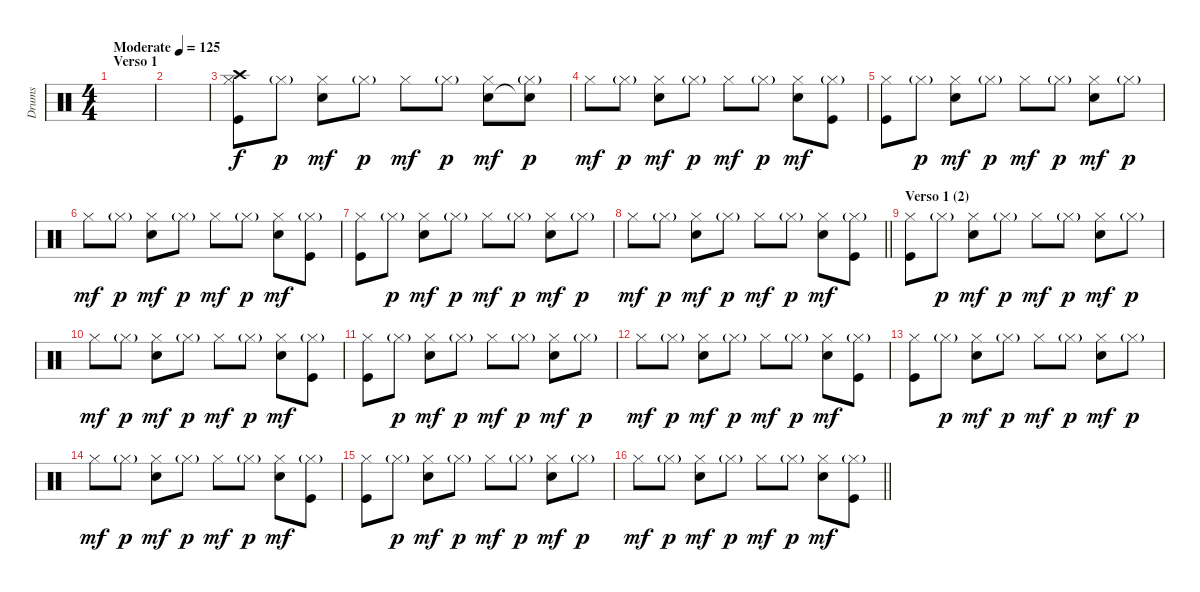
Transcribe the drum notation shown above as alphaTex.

\track ("Drums" "Drums") {instrument percussion}
\staff {score}
\articulation defaults
\ts (4 4)
\section ("" "Verso 1")
\tempo (125 "Moderate")
\clef neutral
\ks c
|
|
("Hi-Hat (closed)" "Kick (hit)" "Crash high (hit)").8 "Hi-Hat (closed)"{g}.8{dy p} ("Hi-Hat (closed)" "Electric Snare (hit)").8{dy mf} "Hi-Hat (closed)"{g}.8{dy p} "Hi-Hat (closed)".8{dy mf} "Hi-Hat (closed)"{g}.8{dy p} ("Hi-Hat (closed)" "Electric Snare (hit)").8{dy mf} ("Hi-Hat (closed)"{g} "Snare (hit)"{t}).8{dy p} |
"Hi-Hat (closed)".8{dy mf} "Hi-Hat (closed)"{g}.8{dy p} ("Hi-Hat (closed)" "Electric Snare (hit)").8{dy mf} "Hi-Hat (closed)"{g}.8{dy p} "Hi-Hat (closed)".8{dy mf} "Hi-Hat (closed)"{g}.8{dy p} ("Hi-Hat (closed)" "Electric Snare (hit)").8{dy mf} ("Hi-Hat (closed)"{g} "Kick (hit)").8 |
("Hi-Hat (closed)" "Kick (hit)").8 "Hi-Hat (closed)"{g}.8{dy p} ("Hi-Hat (closed)" "Electric Snare (hit)").8{dy mf} "Hi-Hat (closed)"{g}.8{dy p} "Hi-Hat (closed)".8{dy mf} "Hi-Hat (closed)"{g}.8{dy p} ("Hi-Hat (closed)" "Electric Snare (hit)").8{dy mf} "Hi-Hat (closed)"{g}.8{dy p} |
"Hi-Hat (closed)".8{dy mf} "Hi-Hat (closed)"{g}.8{dy p} ("Hi-Hat (closed)" "Electric Snare (hit)").8{dy mf} "Hi-Hat (closed)"{g}.8{dy p} "Hi-Hat (closed)".8{dy mf} "Hi-Hat (closed)"{g}.8{dy p} ("Hi-Hat (closed)" "Electric Snare (hit)").8{dy mf} ("Hi-Hat (closed)"{g} "Kick (hit)").8 |
("Hi-Hat (closed)" "Kick (hit)").8 "Hi-Hat (closed)"{g}.8{dy p} ("Hi-Hat (closed)" "Electric Snare (hit)").8{dy mf} "Hi-Hat (closed)"{g}.8{dy p} "Hi-Hat (closed)".8{dy mf} "Hi-Hat (closed)"{g}.8{dy p} ("Hi-Hat (closed)" "Electric Snare (hit)").8{dy mf} "Hi-Hat (closed)"{g}.8{dy p} |
\barLineRight lightlight "Hi-Hat (closed)".8{dy mf} "Hi-Hat (closed)"{g}.8{dy p}
("Hi-Hat (closed)" "Electric Snare (hit)").8{dy mf} "Hi-Hat (closed)"{g}.8{dy p} "Hi-Hat (closed)".8{dy mf} "Hi-Hat (closed)"{g}.8{dy p} ("Hi-Hat (closed)" "Electric Snare (hit)").8{dy mf} ("Hi-Hat (closed)"{g} "Kick (hit)").8 |
\section ("" "Verso 1 (2)")
("Hi-Hat (closed)" "Kick (hit)").8 "Hi-Hat (closed)"{g}.8{dy p} ("Hi-Hat (closed)" "Electric Snare (hit)").8{dy mf} "Hi-Hat (closed)"{g}.8{dy p} "Hi-Hat (closed)".8{dy mf} "Hi-Hat (closed)"{g}.8{dy p} ("Hi-Hat (closed)" "Electric Snare (hit)").8{dy mf} "Hi-Hat (closed)"{g}.8{dy p} |
"Hi-Hat (closed)".8{dy mf} "Hi-Hat (closed)"{g}.8{dy p} ("Hi-Hat (closed)" "Electric Snare (hit)").8{dy mf} "Hi-Hat (closed)"{g}.8{dy p} "Hi-Hat (closed)".8{dy mf} "Hi-Hat (closed)"{g}.8{dy p} ("Hi-Hat (closed)" "Electric Snare (hit)").8{dy mf} ("Hi-Hat (closed)"{g} "Kick (hit)").8 |
("Hi-Hat (closed)" "Kick (hit)").8 "Hi-Hat (closed)"{g}.8{dy p} ("Hi-Hat (closed)" "Electric Snare (hit)").8{dy mf} "Hi-Hat (closed)"{g}.8{dy p} "Hi-Hat (closed)".8{dy mf} "Hi-Hat (closed)"{g}.8{dy p} ("Hi-Hat (closed)" "Electric Snare (hit)").8{dy mf} "Hi-Hat (closed)"{g}.8{dy p} |
"Hi-Hat (closed)".8{dy mf} "Hi-Hat (closed)"{g}.8{dy p} ("Hi-Hat (closed)" "Electric Snare (hit)").8{dy mf} "Hi-Hat (closed)"{g}.8{dy p} "Hi-Hat (closed)".8{dy mf} "Hi-Hat (closed)"{g}.8{dy p} ("Hi-Hat (closed)" "Electric Snare (hit)").8{dy mf} ("Hi-Hat (closed)"{g} "Kick (hit)").8 |
("Hi-Hat (closed)" "Kick (hit)").8 "Hi-Hat (closed)"{g}.8{dy p} ("Hi-Hat (closed)" "Electric Snare (hit)").8{dy mf} "Hi-Hat (closed)"{g}.8{dy p} "Hi-Hat (closed)".8{dy mf} "Hi-Hat (closed)"{g}.8{dy p} ("Hi-Hat (closed)" "Electric Snare (hit)").8{dy mf} "Hi-Hat (closed)"{g}.8{dy p} |
"Hi-Hat (closed)".8{dy mf} "Hi-Hat (closed)"{g}.8{dy p} ("Hi-Hat (closed)" "Electric Snare (hit)").8{dy mf} "Hi-Hat (closed)"{g}.8{dy p} "Hi-Hat (closed)".8{dy mf} "Hi-Hat (closed)"{g}.8{dy p} ("Hi-Hat (closed)" "Electric Snare (hit)").8{dy mf} ("Hi-Hat (closed)"{g} "Kick (hit)").8 |
("Hi-Hat (closed)" "Kick (hit)").8 "Hi-Hat (closed)"{g}.8{dy p} ("Hi-Hat (closed)" "Electric Snare (hit)").8{dy mf} "Hi-Hat (closed)"{g}.8{dy p} "Hi-Hat (closed)".8{dy mf} "Hi-Hat (closed)"{g}.8{dy p} ("Hi-Hat (closed)" "Electric Snare (hit)").8{dy mf} "Hi-Hat (closed)"{g}.8{dy p} |
\barLineRight lightlight "Hi-Hat (closed)".8{dy mf} "Hi-Hat (closed)"{g}.8{dy p}
("Hi-Hat (closed)" "Electric Snare (hit)").8{dy mf} "Hi-Hat (closed)"{g}.8{dy p} "Hi-Hat (closed)".8{dy mf} "Hi-Hat (closed)"{g}.8{dy p} ("Hi-Hat (closed)" "Electric Snare (hit)").8{dy mf} ("Hi-Hat (closed)"{g} "Kick (hit)").8
